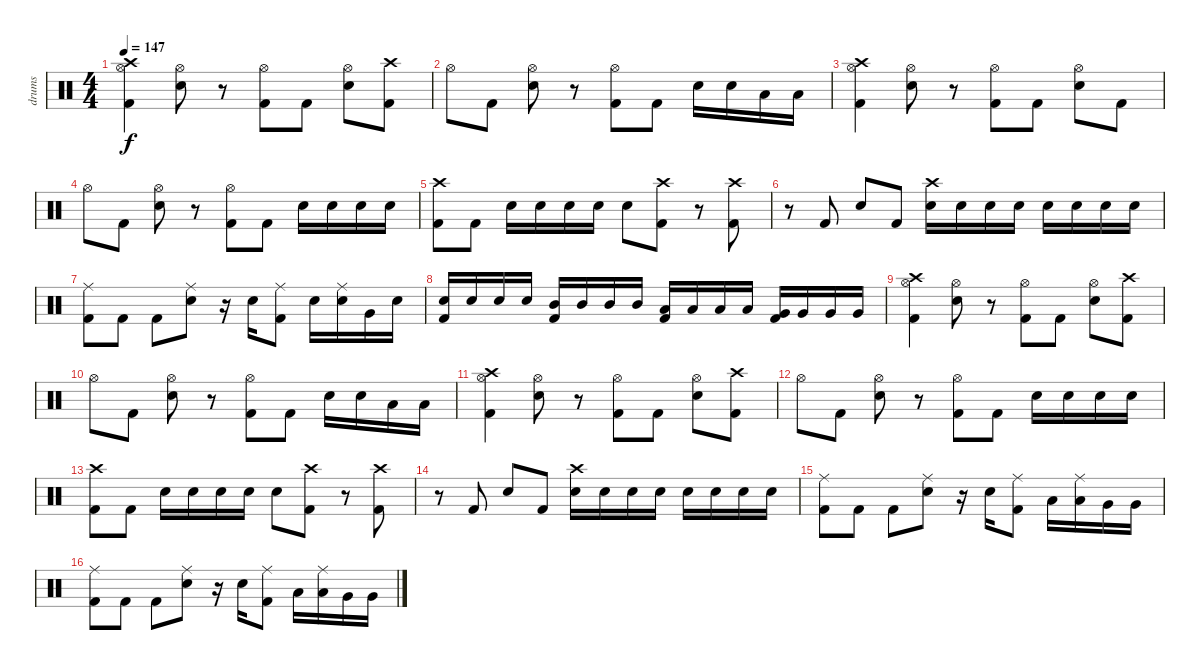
\track ("drums" "drums") {instrument percussion}
\staff {score}
\articulation defaults
\ts (4 4)
\tempo 147
\clef neutral
\ks c
("Crash high (hit)" "Hi-Hat (open)" "Kick (hit) 2").4{dy f} ("Hi-Hat (open)" "Electric Snare (hit)").8 r.8 ("Hi-Hat (open)" "Kick (hit) 2").8 "Kick (hit) 2".8 ("Hi-Hat (open)" "Electric Snare (hit)").8 ("Crash high (hit)" "Kick (hit) 2").8 |
"Hi-Hat (open)".8 "Kick (hit) 2".8 ("Hi-Hat (open)" "Electric Snare (hit)").8 r.8 ("Hi-Hat (open)" "Kick (hit) 2").8 "Kick (hit) 2".8 "Electric Snare (hit)".16 "Electric Snare (hit)".16 "Low Tom (hit)".16 "Low Tom (hit)".16 |
("Crash high (hit)" "Hi-Hat (open)" "Kick (hit) 2").4 ("Hi-Hat (open)" "Electric Snare (hit)").8 r.8 ("Hi-Hat (open)" "Kick (hit) 2").8 "Kick (hit) 2".8 ("Hi-Hat (open)" "Electric Snare (hit)").8 "Kick (hit) 2".8 |
"Hi-Hat (open)".8 "Kick (hit) 2".8 ("Hi-Hat (open)" "Electric Snare (hit)").8 r.8 ("Hi-Hat (open)" "Kick (hit) 2").8 "Kick (hit) 2".8 "Electric Snare (hit)".16 "Electric Snare (hit)".16 "Electric Snare (hit)".16 "Electric Snare (hit)".16 |
("Crash high (hit)" "Kick (hit) 2").8 "Kick (hit) 2".8 "Electric Snare (hit)".16 "Electric Snare (hit)".16 "Electric Snare (hit)".16 "Electric Snare (hit)".16 "Electric Snare (hit)".8 ("Crash high (hit)" "Kick (hit) 2").8 r.8 ("Crash high (hit)" "Kick (hit) 2").8 |
r.8 "Kick (hit) 2".8 "Electric Snare (hit)".8 "Kick (hit) 2".8 ("Crash high (hit)" "Electric Snare (hit)").16 "Electric Snare (hit)".16 "Electric Snare (hit)".16 "Electric Snare (hit)".16 "Electric Snare (hit)".16 "Electric Snare (hit)".16 "Electric Snare (hit)".16 "Electric Snare (hit)".16 |
("Ride (middle)" "Kick (hit) 2").8 "Kick (hit) 2".8 "Kick (hit) 2".8 ("Ride (middle)" "Electric Snare (hit)").8 r.16 "Electric Snare (hit)".16 ("Ride (middle)" "Kick (hit) 2").8 "Electric Snare (hit)".16 ("Ride (middle)" "Electric Snare (hit)").16 "Very Low Tom (hit)".16 "Electric Snare (hit)".16 |
("Electric Snare (hit)" "Kick (hit) 2").16 "Electric Snare (hit)".16 "Electric Snare (hit)".16 "Electric Snare (hit)".16 ("Mid Tom (hit)" "Kick (hit) 2").16 "Mid Tom (hit)".16 "Mid Tom (hit)".16 "Mid Tom (hit)".16 ("Low Tom (hit)" "Kick (hit) 2").16 "Low Tom (hit)".16 "Low Tom (hit)".16 "Low Tom (hit)".16 ("Very Low Tom (hit)" "Kick (hit) 2").16 "Very Low Tom (hit)".16 "Very Low Tom (hit)".16 "Very Low Tom (hit)".16 |
("Crash high (hit)" "Hi-Hat (open)" "Kick (hit) 2").4 ("Hi-Hat (open)" "Electric Snare (hit)").8 r.8 ("Hi-Hat (open)" "Kick (hit) 2").8 "Kick (hit) 2".8 ("Hi-Hat (open)" "Electric Snare (hit)").8 ("Crash high (hit)" "Kick (hit) 2").8 |
"Hi-Hat (open)".8 "Kick (hit) 2".8 ("Hi-Hat (open)" "Electric Snare (hit)").8 r.8 ("Hi-Hat (open)" "Kick (hit) 2").8 "Kick (hit) 2".8 "Electric Snare (hit)".16 "Electric Snare (hit)".16 "Low Tom (hit)".16 "Low Tom (hit)".16 |
("Crash high (hit)" "Hi-Hat (open)" "Kick (hit) 2").4 ("Hi-Hat (open)" "Electric Snare (hit)").8 r.8 ("Hi-Hat (open)" "Kick (hit) 2").8 "Kick (hit) 2".8 ("Hi-Hat (open)" "Electric Snare (hit)").8 ("Crash high (hit)" "Kick (hit) 2").8 |
"Hi-Hat (open)".8 "Kick (hit) 2".8 ("Hi-Hat (open)" "Electric Snare (hit)").8 r.8 ("Hi-Hat (open)" "Kick (hit) 2").8 "Kick (hit) 2".8 "Electric Snare (hit)".16 "Electric Snare (hit)".16 "Electric Snare (hit)".16 "Electric Snare (hit)".16 |
("Crash high (hit)" "Kick (hit) 2").8 "Kick (hit) 2".8 "Electric Snare (hit)".16 "Electric Snare (hit)".16 "Electric Snare (hit)".16 "Electric Snare (hit)".16 "Electric Snare (hit)".8 ("Crash high (hit)" "Kick (hit) 2").8 r.8 ("Crash high (hit)" "Kick (hit) 2").8 |
r.8 "Kick (hit) 2".8 "Electric Snare (hit)".8 "Kick (hit) 2".8 ("Crash high (hit)" "Electric Snare (hit)").16 "Electric Snare (hit)".16 "Electric Snare (hit)".16 "Electric Snare (hit)".16 "Electric Snare (hit)".16 "Electric Snare (hit)".16 "Electric Snare (hit)".16 "Electric Snare (hit)".16 |
("Ride (middle)" "Kick (hit) 2").8 "Kick (hit) 2".8 "Kick (hit) 2".8 ("Ride (middle)" "Electric Snare (hit)").8 r.16 "Electric Snare (hit)".16 ("Ride (middle)" "Kick (hit) 2").8 "Low Tom (hit)".16 ("Ride (middle)" "Low Tom (hit)").16 "Very Low Tom (hit)".16 "Very Low Tom (hit)".16 |
("Ride (middle)" "Kick (hit) 2").8 "Kick (hit) 2".8 "Kick (hit) 2".8 ("Ride (middle)" "Electric Snare (hit)").8 r.16 "Electric Snare (hit)".16 ("Ride (middle)" "Kick (hit) 2").8 "Low Tom (hit)".16 ("Ride (middle)" "Low Tom (hit)").16 "Very Low Tom (hit)".16 "Very Low Tom (hit)".16
